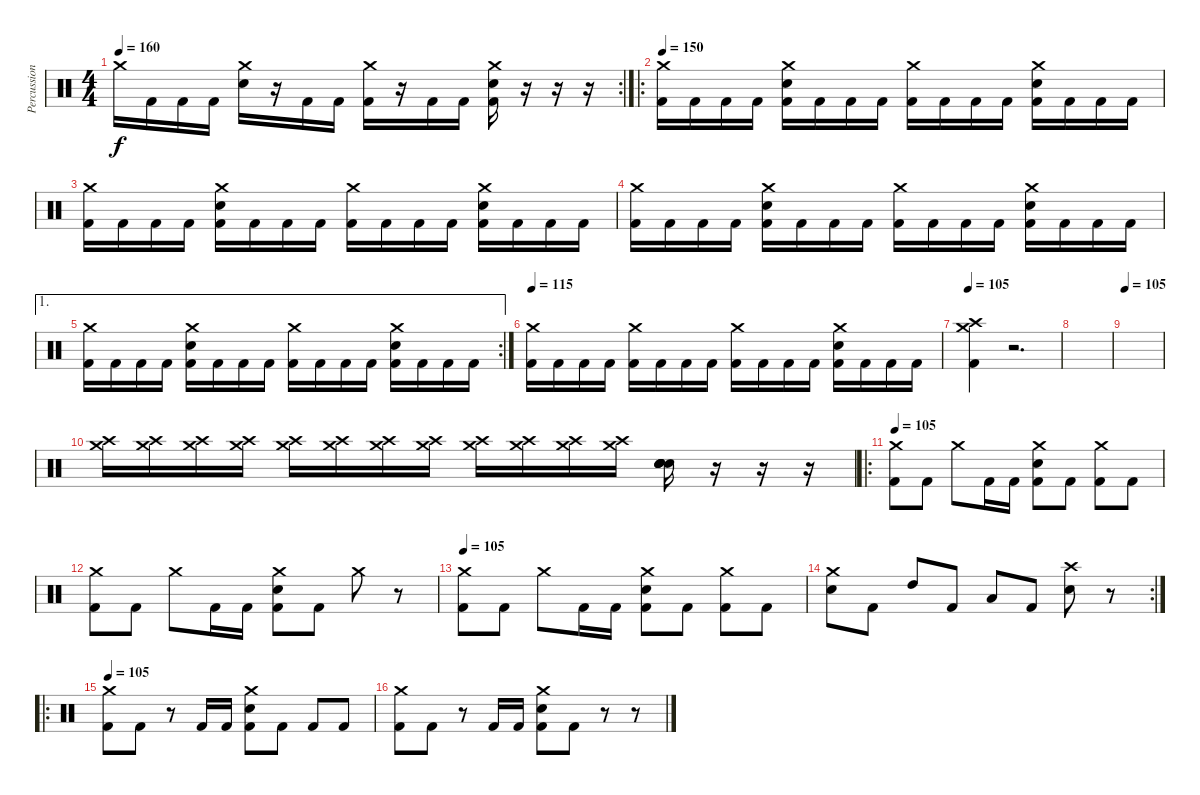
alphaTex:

\track ("Percussion" "Percussion") {instrument percussion}
\staff {score}
\articulation defaults
\rc 2
\ts (4 4)
\tempo 160
\clef neutral
\ks c "Crash medium (hit)".16{dy f} "Kick (hit) 2".16 "Kick (hit) 2".16 "Kick (hit) 2".16
("Crash medium (hit)" "Snare (hit) 2").16 r.16 "Kick (hit) 2".16 "Kick (hit) 2".16 ("Crash medium (hit)" "Kick (hit) 2").16 r.16 "Kick (hit) 2".16 "Kick (hit) 2".16 ("Crash medium (hit)" "Snare (hit) 2" "Kick (hit) 2").16 r.16 r.16 r.16 |
\ro
\tempo 160
\tempo 150
("Crash medium (hit)" "Kick (hit) 2").16 "Kick (hit) 2".16 "Kick (hit) 2".16 "Kick (hit) 2".16 ("Crash medium (hit)" "Snare (hit) 2" "Kick (hit) 2").16 "Kick (hit) 2".16 "Kick (hit) 2".16 "Kick (hit) 2".16 ("Crash medium (hit)" "Kick (hit) 2").16 "Kick (hit) 2".16 "Kick (hit) 2".16 "Kick (hit) 2".16 ("Crash medium (hit)" "Snare (hit) 2" "Kick (hit) 2").16 "Kick (hit) 2".16 "Kick (hit) 2".16 "Kick (hit) 2".16 |
("Crash medium (hit)" "Kick (hit) 2").16 "Kick (hit) 2".16 "Kick (hit) 2".16 "Kick (hit) 2".16 ("Crash medium (hit)" "Snare (hit) 2" "Kick (hit) 2").16 "Kick (hit) 2".16 "Kick (hit) 2".16 "Kick (hit) 2".16 ("Crash medium (hit)" "Kick (hit) 2").16 "Kick (hit) 2".16 "Kick (hit) 2".16 "Kick (hit) 2".16 ("Crash medium (hit)" "Snare (hit) 2" "Kick (hit) 2").16 "Kick (hit) 2".16 "Kick (hit) 2".16 "Kick (hit) 2".16 |
("Crash medium (hit)" "Kick (hit) 2").16 "Kick (hit) 2".16 "Kick (hit) 2".16 "Kick (hit) 2".16 ("Crash medium (hit)" "Snare (hit) 2" "Kick (hit) 2").16 "Kick (hit) 2".16 "Kick (hit) 2".16 "Kick (hit) 2".16 ("Crash medium (hit)" "Kick (hit) 2").16 "Kick (hit) 2".16 "Kick (hit) 2".16 "Kick (hit) 2".16 ("Crash medium (hit)" "Snare (hit) 2" "Kick (hit) 2").16 "Kick (hit) 2".16 "Kick (hit) 2".16 "Kick (hit) 2".16 |
\ae 1
\rc 2
("Crash medium (hit)" "Kick (hit) 2").16 "Kick (hit) 2".16 "Kick (hit) 2".16 "Kick (hit) 2".16 ("Crash medium (hit)" "Snare (hit) 2" "Kick (hit) 2").16 "Kick (hit) 2".16 "Kick (hit) 2".16 "Kick (hit) 2".16 ("Crash medium (hit)" "Kick (hit) 2").16 "Kick (hit) 2".16 "Kick (hit) 2".16 "Kick (hit) 2".16 ("Crash medium (hit)" "Snare (hit) 2" "Kick (hit) 2").16 "Kick (hit) 2".16 "Kick (hit) 2".16 "Kick (hit) 2".16 |
\tempo 115
("Crash medium (hit)" "Kick (hit) 2").16 "Kick (hit) 2".16 "Kick (hit) 2".16 "Kick (hit) 2".16 ("Crash medium (hit)" "Kick (hit) 2").16 "Kick (hit) 2".16 "Kick (hit) 2".16 "Kick (hit) 2".16 ("Crash medium (hit)" "Kick (hit) 2").16 "Kick (hit) 2".16 "Kick (hit) 2".16 "Kick (hit) 2".16 ("Crash medium (hit)" "Snare (hit) 2" "Kick (hit) 2").16 "Kick (hit) 2".16 "Kick (hit) 2".16 "Kick (hit) 2".16 |
\tempo 105
("Crash high (hit)" "Crash medium (hit)" "Kick (hit) 2").4 r.2{d} |
|
\tempo 105
|
("Crash high (hit)" "Crash medium (hit)").16 ("Crash high (hit)" "Crash medium (hit)").16 ("Crash high (hit)" "Crash medium (hit)").16 ("Crash high (hit)" "Crash medium (hit)").16 ("Crash high (hit)" "Crash medium (hit)").16 ("Crash high (hit)" "Crash medium (hit)").16 ("Crash high (hit)" "Crash medium (hit)").16 ("Crash high (hit)" "Crash medium (hit)").16 ("Crash high (hit)" "Crash medium (hit)").16 ("Crash high (hit)" "Crash medium (hit)").16 ("Crash high (hit)" "Crash medium (hit)").16 ("Crash high (hit)" "Crash medium (hit)").16 ("Snare (hit) 2" "Snare (hit) 2" "Snare (hit) 2" "Snare (hit) 2" "Snare (hit) 2").16 r.16 r.16 r.16 |
\ro
\tempo 105
("Crash medium (hit)" "Kick (hit) 2").8 "Kick (hit) 2".8 "Crash medium (hit)".8 "Kick (hit) 2".16 "Kick (hit) 2".16 ("Crash medium (hit)" "Snare (hit) 2" "Kick (hit) 2").8 "Kick (hit) 2".8 ("Crash medium (hit)" "Kick (hit) 2").8 "Kick (hit) 2".8 |
("Crash medium (hit)" "Kick (hit) 2").8 "Kick (hit) 2".8 "Crash medium (hit)".8 "Kick (hit) 2".16 "Kick (hit) 2".16 ("Crash medium (hit)" "Snare (hit) 2" "Kick (hit) 2").8 "Kick (hit) 2".8 "Crash medium (hit)".8 r.8 |
\tempo 105
("Crash medium (hit)" "Kick (hit) 2").8 "Kick (hit) 2".8 "Crash medium (hit)".8 "Kick (hit) 2".16 "Kick (hit) 2".16 ("Crash medium (hit)" "Snare (hit) 2" "Kick (hit) 2").8 "Kick (hit) 2".8 ("Crash medium (hit)" "Kick (hit) 2").8 "Kick (hit) 2".8 |
\rc 2
("Crash medium (hit)" "Snare (hit) 2").8 "Kick (hit) 2".8 "High Tom (hit)".8 "Kick (hit) 2".8 "Low Tom (hit)".8 "Kick (hit) 2".8 ("Crash high (hit)" "Snare (hit) 2").8 r.8 |
\ro
\tempo 105
("Crash medium (hit)" "Kick (hit) 2").8 "Kick (hit) 2".8 r.8 "Kick (hit) 2".16 "Kick (hit) 2".16 ("Crash medium (hit)" "Snare (hit) 2" "Kick (hit) 2").8 "Kick (hit) 2".8 "Kick (hit) 2".8 "Kick (hit) 2".8 |
("Crash medium (hit)" "Kick (hit) 2").8 "Kick (hit) 2".8 r.8 "Kick (hit) 2".16 "Kick (hit) 2".16 ("Crash medium (hit)" "Snare (hit) 2" "Kick (hit) 2").8 "Kick (hit) 2".8 r.8 r.8
